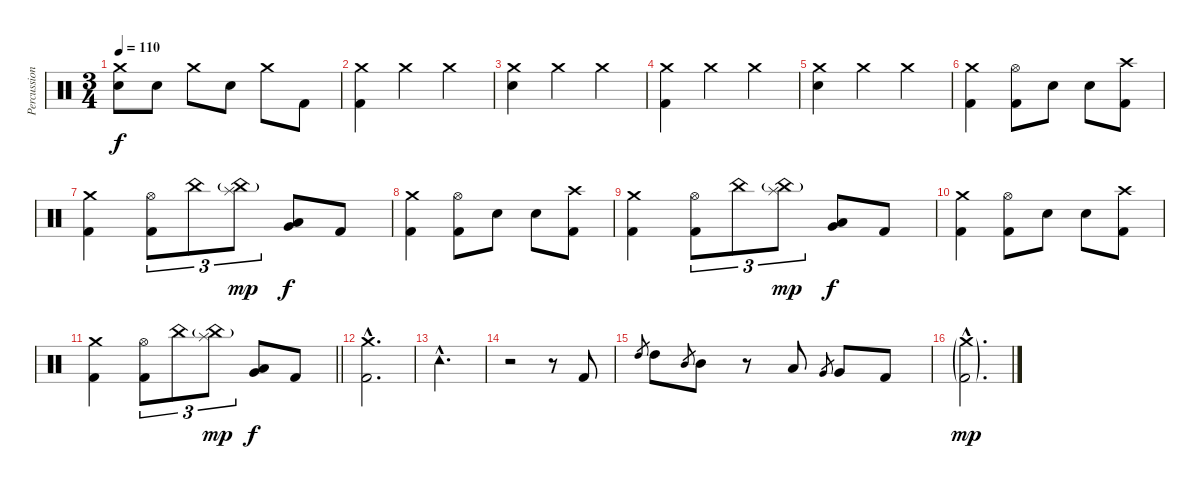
\track ("Percussion" "Percussion") {instrument percussion}
\staff {score}
\articulation defaults
\ts (3 4)
\tempo 110
\clef neutral
\ks c
("Crash medium (hit)" "Snare (hit) 2").8{dy f} "Snare (hit) 2".8 "Crash medium (hit)".8 "Snare (hit) 2".8 "Crash medium (hit)".8 "Kick (hit) 2".8 |
("Crash medium (hit)" "Kick (hit) 2").4 "Crash medium (hit)".4 "Crash medium (hit)".4 |
("Crash medium (hit)" "Snare (hit) 2").4 "Crash medium (hit)".4 "Crash medium (hit)".4 |
("Crash medium (hit)" "Kick (hit) 2").4 "Crash medium (hit)".4 "Crash medium (hit)".4 |
("Crash medium (hit)" "Snare (hit) 2").4 "Crash medium (hit)".4 "Crash medium (hit)".4 |
("Crash medium (hit)" "Kick (hit) 2").4 ("Hi-Hat (open)" "Kick (hit) 2").8 "Snare (hit) 2".8 "Snare (hit) 2".8 ("Crash high (hit)" "Kick (hit) 2").8 |
("Crash medium (hit)" "Kick (hit) 2").4 ("Hi-Hat (open)" "Kick (hit) 2").8{tu (3 2)} "China (hit)".8{tu (3 2)} ("China (hit)"{g} "Splash (hit)").8{tu (3 2) dy mp} ("Low Tom (hit)" "Very Low Tom (hit)").8{dy f} "Kick (hit) 2".8 |
("Crash medium (hit)" "Kick (hit) 2").4 ("Hi-Hat (open)" "Kick (hit) 2").8 "Snare (hit) 2".8 "Snare (hit) 2".8 ("Crash high (hit)" "Kick (hit) 2").8 |
("Crash medium (hit)" "Kick (hit) 2").4 ("Hi-Hat (open)" "Kick (hit) 2").8{tu (3 2)} "China (hit)".8{tu (3 2)} ("China (hit)"{g} "Splash (hit)").8{tu (3 2) dy mp} ("Low Tom (hit)" "Very Low Tom (hit)").8{dy f} "Kick (hit) 2".8 |
("Crash medium (hit)" "Kick (hit) 2").4 ("Hi-Hat (open)" "Kick (hit) 2").8 "Snare (hit) 2".8 "Snare (hit) 2".8 ("Crash high (hit)" "Kick (hit) 2").8 |
\barLineRight lightlight
("Crash medium (hit)" "Kick (hit) 2").4 ("Hi-Hat (open)" "Kick (hit) 2").8{tu (3 2)} "China (hit)".8{tu (3 2)} ("China (hit)"{g} "Splash (hit)").8{tu (3 2) dy mp} ("Low Tom (hit)" "Very Low Tom (hit)").8{dy f} "Kick (hit) 2".8 |
("Crash medium (hit)"{hac} "Kick (hit) 2"{hac}).2{d} |
"Tambourine (hit)"{hac}.2{d} |
r.2 r.8 "Kick (hit) 2".8 |
"High Tom (hit)".8{gr} "High Tom (hit)".8 "Mid Tom (hit)".8{gr} "Mid Tom (hit)".8 r.8 "Low Tom (hit)".8 "Very Low Tom (hit)".8{gr} "Very Low Tom (hit)".8 "Kick (hit) 2".8 |
("Crash medium (hit)"{g hac} "Kick (hit) 2"{g hac}).2{d dy mp}
